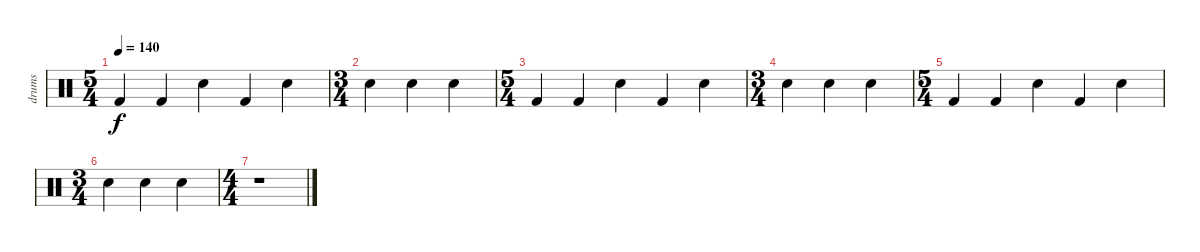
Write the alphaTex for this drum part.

\track ("drums" "drums") {instrument percussion}
\staff {score}
\articulation defaults
\ts (5 4)
\tempo 140
\clef neutral
\ks c "Kick (hit) 2".4{dy f} "Kick (hit) 2".4 "Snare (hit) 2".4 "Kick (hit) 2".4 "Snare (hit) 2".4
|
\ts (3 4)
"Electric Snare (hit)".4 "Snare (hit) 2".4 "Electric Snare (hit)".4 |
\ts (5 4)
"Kick (hit) 2".4 "Kick (hit) 2".4 "Snare (hit) 2".4 "Kick (hit) 2".4 "Snare (hit) 2".4 |
\ts (3 4)
"Electric Snare (hit)".4 "Snare (hit) 2".4 "Electric Snare (hit)".4 |
\ts (5 4)
"Kick (hit) 2".4 "Kick (hit) 2".4 "Snare (hit) 2".4 "Kick (hit) 2".4 "Snare (hit) 2".4 |
\ts (3 4)
"Electric Snare (hit)".4 "Snare (hit) 2".4 "Electric Snare (hit)".4 |
\ts (4 4)
r.1
